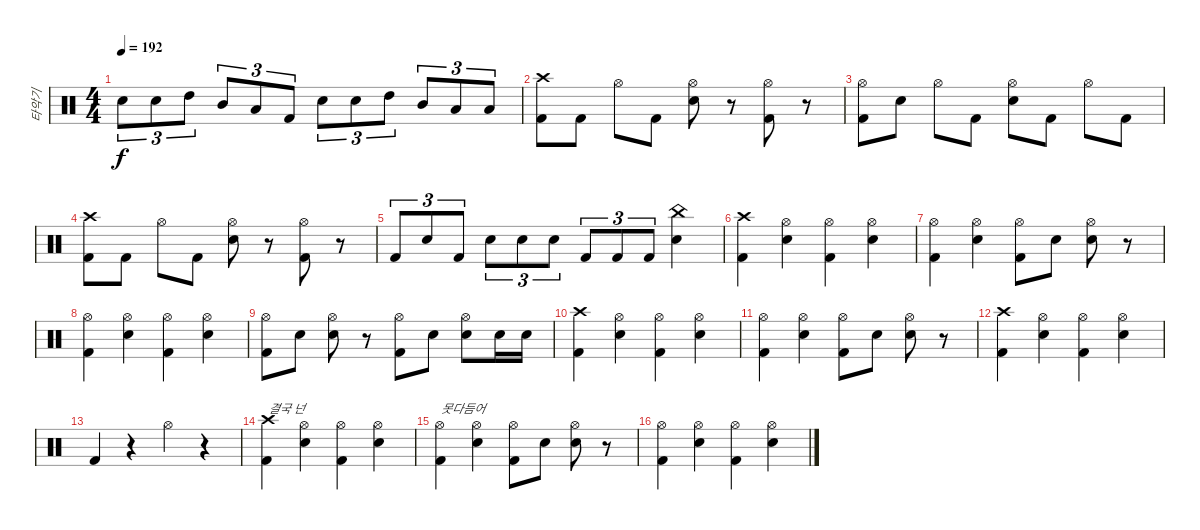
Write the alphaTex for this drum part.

\track ("타악기" "타악기") {instrument percussion}
\staff {score}
\articulation defaults
\ts (4 4)
\tempo 192
\clef neutral
\ks c "Snare (hit) 2".8{tu (3 2) dy f} "Snare (hit) 2".8{tu (3 2)} "High Tom (hit)".8{tu (3 2)} "Mid Tom (hit)".8{tu (3 2)} "Low Tom (hit)".8{tu (3 2)} "Kick (hit) 2".8{tu (3 2)} "Snare (hit) 2".8{tu (3 2)} "Snare (hit) 2".8{tu (3 2)} "High Tom (hit)".8{tu (3 2)} "Mid Tom (hit)".8{tu (3 2)} "Low Tom (hit)".8{tu (3 2)} "Low Tom (hit)".8{tu (3 2)}
|
("Crash high (hit)" "Kick (hit) 2").8 "Kick (hit) 2".8 "Hi-Hat (open)".8 "Kick (hit) 2".8 ("Hi-Hat (open)" "Snare (hit) 2").8 r.8 ("Hi-Hat (open)" "Kick (hit) 2").8 r.8 |
("Hi-Hat (open)" "Kick (hit) 2").8 "Snare (hit) 2".8 "Hi-Hat (open)".8 "Kick (hit) 2".8 ("Hi-Hat (open)" "Snare (hit) 2").8 "Kick (hit) 2".8 "Hi-Hat (open)".8 "Kick (hit) 2".8 |
("Crash high (hit)" "Kick (hit) 2").8 "Kick (hit) 2".8 "Hi-Hat (open)".8 "Kick (hit) 2".8 ("Hi-Hat (open)" "Snare (hit) 2").8 r.8 ("Hi-Hat (open)" "Kick (hit) 2").8 r.8 |
"Kick (hit) 2".8{tu (3 2)} "Snare (hit) 2".8{tu (3 2)} "Kick (hit) 2".8{tu (3 2)} "Snare (hit) 2".8{tu (3 2)} "Snare (hit) 2".8{tu (3 2)} "Snare (hit) 2".8{tu (3 2)} "Kick (hit) 2".8{tu (3 2)} "Kick (hit) 2".8{tu (3 2)} "Kick (hit) 2".8{tu (3 2)} ("China (hit)" "Snare (hit) 2").4 |
("Crash high (hit)" "Kick (hit) 2").4 ("Hi-Hat (open)" "Snare (hit) 2").4 ("Hi-Hat (open)" "Kick (hit) 2").4 ("Hi-Hat (open)" "Snare (hit) 2").4 |
("Hi-Hat (open)" "Kick (hit) 2").4 ("Hi-Hat (open)" "Snare (hit) 2").4 ("Hi-Hat (open)" "Kick (hit) 2").8 "Snare (hit) 2".8 ("Hi-Hat (open)" "Snare (hit) 2").8 r.8 |
("Hi-Hat (open)" "Kick (hit) 2").4 ("Hi-Hat (open)" "Snare (hit) 2").4 ("Hi-Hat (open)" "Kick (hit) 2").4 ("Hi-Hat (open)" "Snare (hit) 2").4 |
("Hi-Hat (open)" "Kick (hit) 2").8 "Snare (hit) 2".8 ("Hi-Hat (open)" "Snare (hit) 2").8 r.8 ("Hi-Hat (open)" "Kick (hit) 2").8 "Snare (hit) 2".8 ("Hi-Hat (open)" "Snare (hit) 2").8 "Snare (hit) 2".16 "Snare (hit) 2".16 |
("Crash high (hit)" "Kick (hit) 2").4 ("Hi-Hat (open)" "Snare (hit) 2").4 ("Hi-Hat (open)" "Kick (hit) 2").4 ("Hi-Hat (open)" "Snare (hit) 2").4 |
("Hi-Hat (open)" "Kick (hit) 2").4 ("Hi-Hat (open)" "Snare (hit) 2").4 ("Hi-Hat (open)" "Kick (hit) 2").8 "Snare (hit) 2".8 ("Hi-Hat (open)" "Snare (hit) 2").8 r.8 |
("Crash high (hit)" "Kick (hit) 2").4 ("Hi-Hat (open)" "Snare (hit) 2").4 ("Hi-Hat (open)" "Kick (hit) 2").4 ("Hi-Hat (open)" "Snare (hit) 2").4 |
"Kick (hit) 2".4 r.4 "Hi-Hat (open)".4 r.4 |
("Crash high (hit)" "Kick (hit) 2").4{txt "결국 넌"} ("Hi-Hat (open)" "Snare (hit) 2").4 ("Hi-Hat (open)" "Kick (hit) 2").4 ("Hi-Hat (open)" "Snare (hit) 2").4 |
("Hi-Hat (open)" "Kick (hit) 2").4{txt "못다듬어"} ("Hi-Hat (open)" "Snare (hit) 2").4 ("Hi-Hat (open)" "Kick (hit) 2").8 "Snare (hit) 2".8 ("Hi-Hat (open)" "Snare (hit) 2").8 r.8 |
("Hi-Hat (open)" "Kick (hit) 2").4 ("Hi-Hat (open)" "Snare (hit) 2").4 ("Hi-Hat (open)" "Kick (hit) 2").4 ("Hi-Hat (open)" "Snare (hit) 2").4
